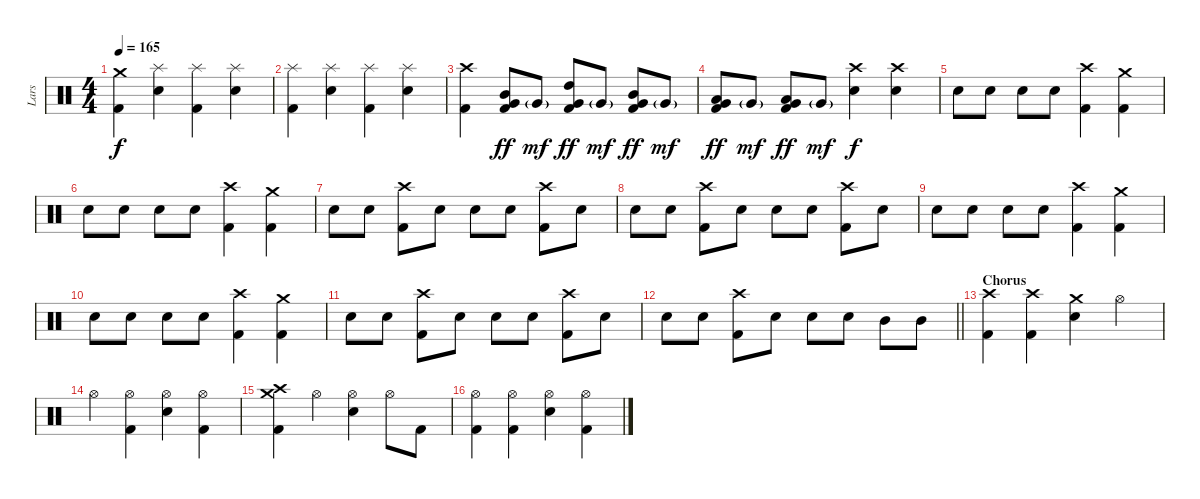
\track ("Lars" "Lars") {instrument percussion}
\staff {score}
\articulation defaults
\ts (4 4)
\tempo 165
\clef neutral
\ks c
("Crash medium (hit)" "Kick (hit) 2").4{dy f} ("Splash (hit)" "Snare (hit) 2").4 ("Splash (hit)" "Kick (hit) 2").4 ("Splash (hit)" "Snare (hit) 2").4 |
("Splash (hit)" "Kick (hit) 2").4 ("Splash (hit)" "Snare (hit) 2").4 ("Splash (hit)" "Kick (hit) 2").4 ("Splash (hit)" "Snare (hit) 2").4 |
("Crash high (hit)" "Kick (hit) 2").4 ("Mid Tom (hit)" "Very Low Tom (hit)" "Kick (hit) 2").8{dy ff} "Very Low Tom (hit)"{g}.8{dy mf} ("High Tom (hit)" "Very Low Tom (hit)" "Kick (hit) 2").8{dy ff} "Very Low Tom (hit)"{g}.8{dy mf} ("Mid Tom (hit)" "Very Low Tom (hit)" "Kick (hit) 2").8{dy ff} "Very Low Tom (hit)"{g}.8{dy mf} |
("Low Tom (hit)" "Very Low Tom (hit)" "Kick (hit) 2").8{dy ff} "Very Low Tom (hit)"{g}.8{dy mf} ("Low Tom (hit)" "Very Low Tom (hit)" "Kick (hit) 2").8{dy ff} "Very Low Tom (hit)"{g}.8{dy mf} ("Crash high (hit)" "Snare (hit) 2").4{dy f} ("Crash high (hit)" "Snare (hit) 2").4 |
"Snare (hit) 2".8 "Snare (hit) 2".8 "Snare (hit) 2".8 "Snare (hit) 2".8 ("Crash high (hit)" "Kick (hit) 2").4 ("Crash medium (hit)" "Kick (hit) 2").4 |
"Snare (hit) 2".8 "Snare (hit) 2".8 "Snare (hit) 2".8 "Snare (hit) 2".8 ("Crash high (hit)" "Kick (hit) 2").4 ("Crash medium (hit)" "Kick (hit) 2").4 |
"Snare (hit) 2".8 "Snare (hit) 2".8 ("Crash high (hit)" "Kick (hit) 2").8 "Snare (hit) 2".8 "Snare (hit) 2".8 "Snare (hit) 2".8 ("Crash high (hit)" "Kick (hit) 2").8 "Snare (hit) 2".8 |
"Snare (hit) 2".8 "Snare (hit) 2".8 ("Crash high (hit)" "Kick (hit) 2").8 "Snare (hit) 2".8 "Snare (hit) 2".8 "Snare (hit) 2".8 ("Crash high (hit)" "Kick (hit) 2").8 "Snare (hit) 2".8 |
"Snare (hit) 2".8 "Snare (hit) 2".8 "Snare (hit) 2".8 "Snare (hit) 2".8 ("Crash high (hit)" "Kick (hit) 2").4 ("Crash medium (hit)" "Kick (hit) 2").4 |
"Snare (hit) 2".8 "Snare (hit) 2".8 "Snare (hit) 2".8 "Snare (hit) 2".8 ("Crash high (hit)" "Kick (hit) 2").4 ("Crash medium (hit)" "Kick (hit) 2").4 |
"Snare (hit) 2".8 "Snare (hit) 2".8 ("Crash high (hit)" "Kick (hit) 2").8 "Snare (hit) 2".8 "Snare (hit) 2".8 "Snare (hit) 2".8 ("Crash high (hit)" "Kick (hit) 2").8 "Snare (hit) 2".8 |
\barLineRight lightlight "Snare (hit) 2".8 "Snare (hit) 2".8
("Crash high (hit)" "Kick (hit) 2").8 "Snare (hit) 2".8 "Snare (hit) 2".8 "Snare (hit) 2".8 "Mid Tom (hit)".8 "Mid Tom (hit)".8 |
\section ("" "Chorus")
("Crash high (hit)" "Kick (hit) 2").4 ("Crash high (hit)" "Kick (hit) 2").4 ("Crash medium (hit)" "Snare (hit) 2").4 "Hi-Hat (open)".4 |
"Hi-Hat (open)".4 ("Hi-Hat (open)" "Kick (hit) 2").4 ("Hi-Hat (open)" "Snare (hit) 2").4 ("Hi-Hat (open)" "Kick (hit) 2").4 |
("Crash high (hit)" "Crash medium (hit)" "Kick (hit) 2").4 "Hi-Hat (open)".4 ("Hi-Hat (open)" "Snare (hit) 2").4 "Hi-Hat (open)".8 "Kick (hit) 2".8 |
("Hi-Hat (open)" "Kick (hit) 2").4 ("Hi-Hat (open)" "Kick (hit) 2").4 ("Hi-Hat (open)" "Snare (hit) 2").4 ("Hi-Hat (open)" "Kick (hit) 2").4
